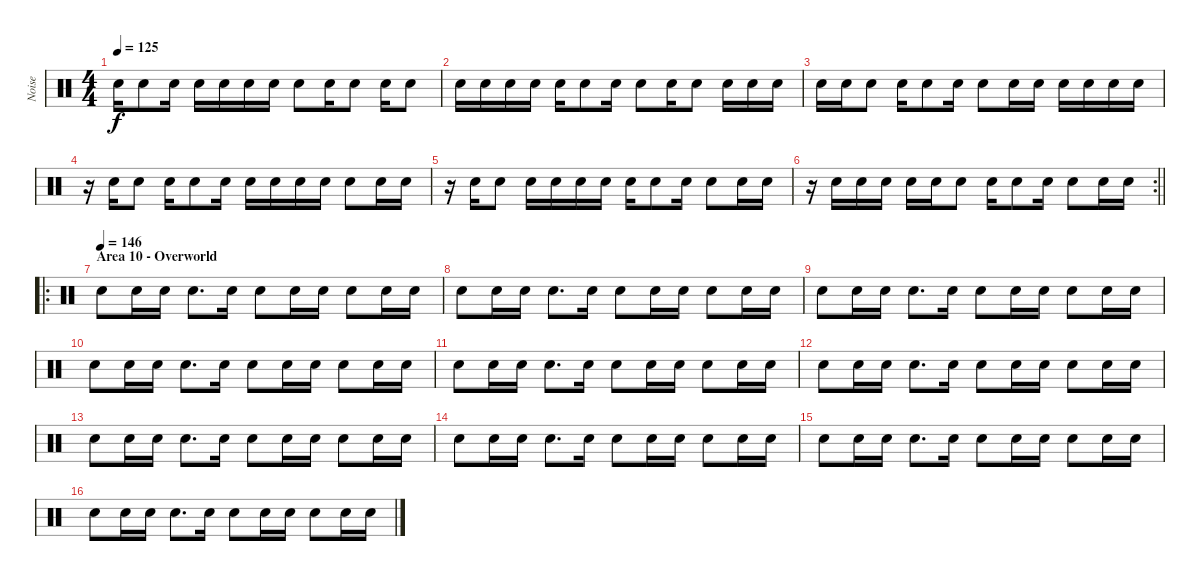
\track ("Noise" "Noise") {instrument percussion}
\staff {score}
\articulation defaults
\ts (4 4)
\tempo 125
\clef neutral
\ks c "Snare (hit) 2".16{dy f} "Snare (hit) 2".8 "Snare (hit) 2".16 "Snare (hit) 2".16 "Snare (hit) 2".16 "Snare (hit) 2".16 "Snare (hit) 2".16 "Snare (hit) 2".8 "Snare (hit) 2".16 "Snare (hit) 2".8 "Snare (hit) 2".16 "Snare (hit) 2".8
|
"Snare (hit) 2".16 "Snare (hit) 2".16 "Snare (hit) 2".16 "Snare (hit) 2".16 "Snare (hit) 2".16 "Snare (hit) 2".8 "Snare (hit) 2".16 "Snare (hit) 2".8 "Snare (hit) 2".16 "Snare (hit) 2".8 "Snare (hit) 2".16 "Snare (hit) 2".16 "Snare (hit) 2".16 |
"Snare (hit) 2".16 "Snare (hit) 2".16 "Snare (hit) 2".8 "Snare (hit) 2".16 "Snare (hit) 2".8 "Snare (hit) 2".16 "Snare (hit) 2".8 "Snare (hit) 2".16 "Snare (hit) 2".16 "Snare (hit) 2".16 "Snare (hit) 2".16 "Snare (hit) 2".16 "Snare (hit) 2".16 |
r.16 "Snare (hit) 2".16 "Snare (hit) 2".8 "Snare (hit) 2".16 "Snare (hit) 2".8 "Snare (hit) 2".16 "Snare (hit) 2".16 "Snare (hit) 2".16 "Snare (hit) 2".16 "Snare (hit) 2".16 "Snare (hit) 2".8 "Snare (hit) 2".16 "Snare (hit) 2".16 |
r.16 "Snare (hit) 2".16 "Snare (hit) 2".8 "Snare (hit) 2".16 "Snare (hit) 2".16 "Snare (hit) 2".16 "Snare (hit) 2".16 "Snare (hit) 2".16 "Snare (hit) 2".8 "Snare (hit) 2".16 "Snare (hit) 2".8 "Snare (hit) 2".16 "Snare (hit) 2".16 |
\rc 2
\barLineRight lightlight
r.16 "Snare (hit) 2".16 "Snare (hit) 2".16 "Snare (hit) 2".16 "Snare (hit) 2".16 "Snare (hit) 2".16 "Snare (hit) 2".8 "Snare (hit) 2".16 "Snare (hit) 2".8 "Snare (hit) 2".16 "Snare (hit) 2".8 "Snare (hit) 2".16 "Snare (hit) 2".16 |
\ro
\section ("" "Area 10 - Overworld")
\tempo (146)
"Snare (hit) 2".8{volume 13} "Snare (hit) 2".16 "Snare (hit) 2".16 "Snare (hit) 2".8{d} "Snare (hit) 2".16 "Snare (hit) 2".8 "Snare (hit) 2".16 "Snare (hit) 2".16 "Snare (hit) 2".8 "Snare (hit) 2".16 "Snare (hit) 2".16 |
"Snare (hit) 2".8 "Snare (hit) 2".16 "Snare (hit) 2".16 "Snare (hit) 2".8{d} "Snare (hit) 2".16 "Snare (hit) 2".8 "Snare (hit) 2".16 "Snare (hit) 2".16 "Snare (hit) 2".8 "Snare (hit) 2".16 "Snare (hit) 2".16 |
"Snare (hit) 2".8 "Snare (hit) 2".16 "Snare (hit) 2".16 "Snare (hit) 2".8{d} "Snare (hit) 2".16 "Snare (hit) 2".8 "Snare (hit) 2".16 "Snare (hit) 2".16 "Snare (hit) 2".8 "Snare (hit) 2".16 "Snare (hit) 2".16 |
"Snare (hit) 2".8 "Snare (hit) 2".16 "Snare (hit) 2".16 "Snare (hit) 2".8{d} "Snare (hit) 2".16 "Snare (hit) 2".8 "Snare (hit) 2".16 "Snare (hit) 2".16 "Snare (hit) 2".8 "Snare (hit) 2".16 "Snare (hit) 2".16 |
"Snare (hit) 2".8 "Snare (hit) 2".16 "Snare (hit) 2".16 "Snare (hit) 2".8{d} "Snare (hit) 2".16 "Snare (hit) 2".8 "Snare (hit) 2".16 "Snare (hit) 2".16 "Snare (hit) 2".8 "Snare (hit) 2".16 "Snare (hit) 2".16 |
"Snare (hit) 2".8 "Snare (hit) 2".16 "Snare (hit) 2".16 "Snare (hit) 2".8{d} "Snare (hit) 2".16 "Snare (hit) 2".8 "Snare (hit) 2".16 "Snare (hit) 2".16 "Snare (hit) 2".8 "Snare (hit) 2".16 "Snare (hit) 2".16 |
"Snare (hit) 2".8 "Snare (hit) 2".16 "Snare (hit) 2".16 "Snare (hit) 2".8{d} "Snare (hit) 2".16 "Snare (hit) 2".8 "Snare (hit) 2".16 "Snare (hit) 2".16 "Snare (hit) 2".8 "Snare (hit) 2".16 "Snare (hit) 2".16 |
"Snare (hit) 2".8 "Snare (hit) 2".16 "Snare (hit) 2".16 "Snare (hit) 2".8{d} "Snare (hit) 2".16 "Snare (hit) 2".8 "Snare (hit) 2".16 "Snare (hit) 2".16 "Snare (hit) 2".8 "Snare (hit) 2".16 "Snare (hit) 2".16 |
"Snare (hit) 2".8 "Snare (hit) 2".16 "Snare (hit) 2".16 "Snare (hit) 2".8{d} "Snare (hit) 2".16 "Snare (hit) 2".8 "Snare (hit) 2".16 "Snare (hit) 2".16 "Snare (hit) 2".8 "Snare (hit) 2".16 "Snare (hit) 2".16 |
"Snare (hit) 2".8 "Snare (hit) 2".16 "Snare (hit) 2".16 "Snare (hit) 2".8{d} "Snare (hit) 2".16 "Snare (hit) 2".8 "Snare (hit) 2".16 "Snare (hit) 2".16 "Snare (hit) 2".8 "Snare (hit) 2".16 "Snare (hit) 2".16
